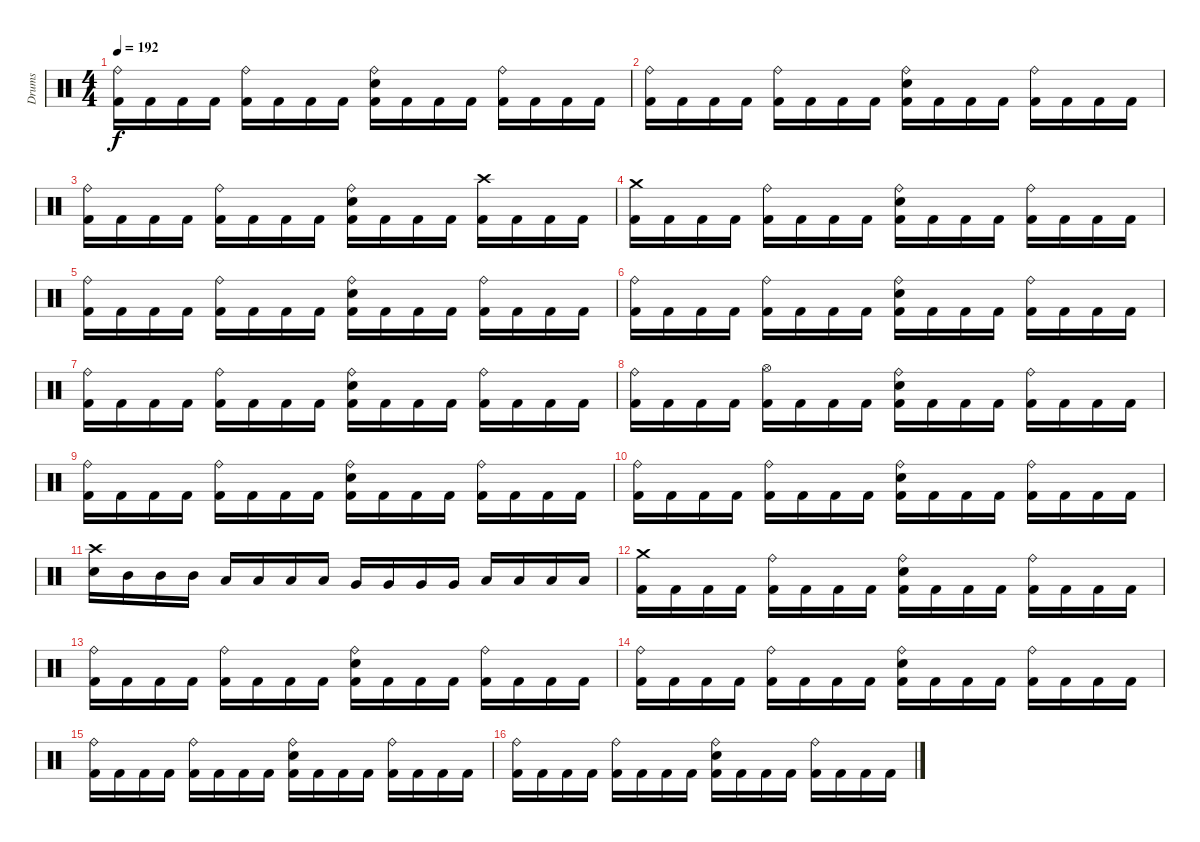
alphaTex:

\track ("Drums" "Drums") {instrument percussion}
\staff {score}
\articulation defaults
\ts (4 4)
\tempo 192
\clef neutral
\ks c
("Ride (bell)" "Kick (hit) 2").16{dy f} "Kick (hit) 2".16 "Kick (hit) 2".16 "Kick (hit) 2".16 ("Ride (bell)" "Kick (hit) 2").16 "Kick (hit) 2".16 "Kick (hit) 2".16 "Kick (hit) 2".16 ("Ride (bell)" "Electric Snare (hit)" "Kick (hit) 2").16 "Kick (hit) 2".16 "Kick (hit) 2".16 "Kick (hit) 2".16 ("Ride (bell)" "Kick (hit) 2").16 "Kick (hit) 2".16 "Kick (hit) 2".16 "Kick (hit) 2".16 |
("Ride (bell)" "Kick (hit) 2").16 "Kick (hit) 2".16 "Kick (hit) 2".16 "Kick (hit) 2".16 ("Ride (bell)" "Kick (hit) 2").16 "Kick (hit) 2".16 "Kick (hit) 2".16 "Kick (hit) 2".16 ("Ride (bell)" "Electric Snare (hit)" "Kick (hit) 2").16 "Kick (hit) 2".16 "Kick (hit) 2".16 "Kick (hit) 2".16 ("Ride (bell)" "Kick (hit) 2").16 "Kick (hit) 2".16 "Kick (hit) 2".16 "Kick (hit) 2".16 |
("Ride (bell)" "Kick (hit) 2").16 "Kick (hit) 2".16 "Kick (hit) 2".16 "Kick (hit) 2".16 ("Ride (bell)" "Kick (hit) 2").16 "Kick (hit) 2".16 "Kick (hit) 2".16 "Kick (hit) 2".16 ("Ride (bell)" "Electric Snare (hit)" "Kick (hit) 2").16 "Kick (hit) 2".16 "Kick (hit) 2".16 "Kick (hit) 2".16 ("Crash high (hit)" "Kick (hit) 2").16 "Kick (hit) 2".16 "Kick (hit) 2".16 "Kick (hit) 2".16 |
("Crash medium (hit)" "Kick (hit) 2").16 "Kick (hit) 2".16 "Kick (hit) 2".16 "Kick (hit) 2".16 ("Ride (bell)" "Kick (hit) 2").16 "Kick (hit) 2".16 "Kick (hit) 2".16 "Kick (hit) 2".16 ("Ride (bell)" "Electric Snare (hit)" "Kick (hit) 2").16 "Kick (hit) 2".16 "Kick (hit) 2".16 "Kick (hit) 2".16 ("Ride (bell)" "Kick (hit) 2").16 "Kick (hit) 2".16 "Kick (hit) 2".16 "Kick (hit) 2".16 |
("Ride (bell)" "Kick (hit) 2").16 "Kick (hit) 2".16 "Kick (hit) 2".16 "Kick (hit) 2".16 ("Ride (bell)" "Kick (hit) 2").16 "Kick (hit) 2".16 "Kick (hit) 2".16 "Kick (hit) 2".16 ("Ride (bell)" "Electric Snare (hit)" "Kick (hit) 2").16 "Kick (hit) 2".16 "Kick (hit) 2".16 "Kick (hit) 2".16 ("Ride (bell)" "Kick (hit) 2").16 "Kick (hit) 2".16 "Kick (hit) 2".16 "Kick (hit) 2".16 |
("Ride (bell)" "Kick (hit) 2").16 "Kick (hit) 2".16 "Kick (hit) 2".16 "Kick (hit) 2".16 ("Ride (bell)" "Kick (hit) 2").16 "Kick (hit) 2".16 "Kick (hit) 2".16 "Kick (hit) 2".16 ("Ride (bell)" "Electric Snare (hit)" "Kick (hit) 2").16 "Kick (hit) 2".16 "Kick (hit) 2".16 "Kick (hit) 2".16 ("Ride (bell)" "Kick (hit) 2").16 "Kick (hit) 2".16 "Kick (hit) 2".16 "Kick (hit) 2".16 |
("Ride (bell)" "Kick (hit) 2").16 "Kick (hit) 2".16 "Kick (hit) 2".16 "Kick (hit) 2".16 ("Ride (bell)" "Kick (hit) 2").16 "Kick (hit) 2".16 "Kick (hit) 2".16 "Kick (hit) 2".16 ("Ride (bell)" "Electric Snare (hit)" "Kick (hit) 2").16 "Kick (hit) 2".16 "Kick (hit) 2".16 "Kick (hit) 2".16 ("Ride (bell)" "Kick (hit) 2").16 "Kick (hit) 2".16 "Kick (hit) 2".16 "Kick (hit) 2".16 |
("Ride (bell)" "Kick (hit) 2").16 "Kick (hit) 2".16 "Kick (hit) 2".16 "Kick (hit) 2".16 ("Hi-Hat (open)" "Kick (hit) 2").16 "Kick (hit) 2".16 "Kick (hit) 2".16 "Kick (hit) 2".16 ("Ride (bell)" "Electric Snare (hit)" "Kick (hit) 2").16 "Kick (hit) 2".16 "Kick (hit) 2".16 "Kick (hit) 2".16 ("Ride (bell)" "Kick (hit) 2").16 "Kick (hit) 2".16 "Kick (hit) 2".16 "Kick (hit) 2".16 |
("Ride (bell)" "Kick (hit) 2").16 "Kick (hit) 2".16 "Kick (hit) 2".16 "Kick (hit) 2".16 ("Ride (bell)" "Kick (hit) 2").16 "Kick (hit) 2".16 "Kick (hit) 2".16 "Kick (hit) 2".16 ("Ride (bell)" "Electric Snare (hit)" "Kick (hit) 2").16 "Kick (hit) 2".16 "Kick (hit) 2".16 "Kick (hit) 2".16 ("Ride (bell)" "Kick (hit) 2").16 "Kick (hit) 2".16 "Kick (hit) 2".16 "Kick (hit) 2".16 |
("Ride (bell)" "Kick (hit) 2").16 "Kick (hit) 2".16 "Kick (hit) 2".16 "Kick (hit) 2".16 ("Ride (bell)" "Kick (hit) 2").16 "Kick (hit) 2".16 "Kick (hit) 2".16 "Kick (hit) 2".16 ("Ride (bell)" "Electric Snare (hit)" "Kick (hit) 2").16 "Kick (hit) 2".16 "Kick (hit) 2".16 "Kick (hit) 2".16 ("Ride (bell)" "Kick (hit) 2").16 "Kick (hit) 2".16 "Kick (hit) 2".16 "Kick (hit) 2".16 |
("Crash high (hit)" "Electric Snare (hit)").16 "Mid Tom (hit)".16 "Mid Tom (hit)".16 "Mid Tom (hit)".16 "Low Tom (hit)".16 "Low Tom (hit)".16 "Low Tom (hit)".16 "Low Tom (hit)".16 "Very Low Tom (hit)".16 "Very Low Tom (hit)".16 "Very Low Tom (hit)".16 "Very Low Tom (hit)".16 "Low Floor Tom (hit)".16 "Low Floor Tom (hit)".16 "Low Floor Tom (hit)".16 "Low Floor Tom (hit)".16 |
("Crash medium (hit)" "Kick (hit) 2").16 "Kick (hit) 2".16 "Kick (hit) 2".16 "Kick (hit) 2".16 ("Ride (bell)" "Kick (hit) 2").16 "Kick (hit) 2".16 "Kick (hit) 2".16 "Kick (hit) 2".16 ("Ride (bell)" "Electric Snare (hit)" "Kick (hit) 2").16 "Kick (hit) 2".16 "Kick (hit) 2".16 "Kick (hit) 2".16 ("Ride (bell)" "Kick (hit) 2").16 "Kick (hit) 2".16 "Kick (hit) 2".16 "Kick (hit) 2".16 |
("Ride (bell)" "Kick (hit) 2").16 "Kick (hit) 2".16 "Kick (hit) 2".16 "Kick (hit) 2".16 ("Ride (bell)" "Kick (hit) 2").16 "Kick (hit) 2".16 "Kick (hit) 2".16 "Kick (hit) 2".16 ("Ride (bell)" "Electric Snare (hit)" "Kick (hit) 2").16 "Kick (hit) 2".16 "Kick (hit) 2".16 "Kick (hit) 2".16 ("Ride (bell)" "Kick (hit) 2").16 "Kick (hit) 2".16 "Kick (hit) 2".16 "Kick (hit) 2".16 |
("Ride (bell)" "Kick (hit) 2").16 "Kick (hit) 2".16 "Kick (hit) 2".16 "Kick (hit) 2".16 ("Ride (bell)" "Kick (hit) 2").16 "Kick (hit) 2".16 "Kick (hit) 2".16 "Kick (hit) 2".16 ("Ride (bell)" "Electric Snare (hit)" "Kick (hit) 2").16 "Kick (hit) 2".16 "Kick (hit) 2".16 "Kick (hit) 2".16 ("Ride (bell)" "Kick (hit) 2").16 "Kick (hit) 2".16 "Kick (hit) 2".16 "Kick (hit) 2".16 |
("Ride (bell)" "Kick (hit) 2").16 "Kick (hit) 2".16 "Kick (hit) 2".16 "Kick (hit) 2".16 ("Ride (bell)" "Kick (hit) 2").16 "Kick (hit) 2".16 "Kick (hit) 2".16 "Kick (hit) 2".16 ("Ride (bell)" "Electric Snare (hit)" "Kick (hit) 2").16 "Kick (hit) 2".16 "Kick (hit) 2".16 "Kick (hit) 2".16 ("Ride (bell)" "Kick (hit) 2").16 "Kick (hit) 2".16 "Kick (hit) 2".16 "Kick (hit) 2".16 |
("Ride (bell)" "Kick (hit) 2").16 "Kick (hit) 2".16 "Kick (hit) 2".16 "Kick (hit) 2".16 ("Ride (bell)" "Kick (hit) 2").16 "Kick (hit) 2".16 "Kick (hit) 2".16 "Kick (hit) 2".16 ("Ride (bell)" "Electric Snare (hit)" "Kick (hit) 2").16 "Kick (hit) 2".16 "Kick (hit) 2".16 "Kick (hit) 2".16 ("Ride (bell)" "Kick (hit) 2").16 "Kick (hit) 2".16 "Kick (hit) 2".16 "Kick (hit) 2".16
